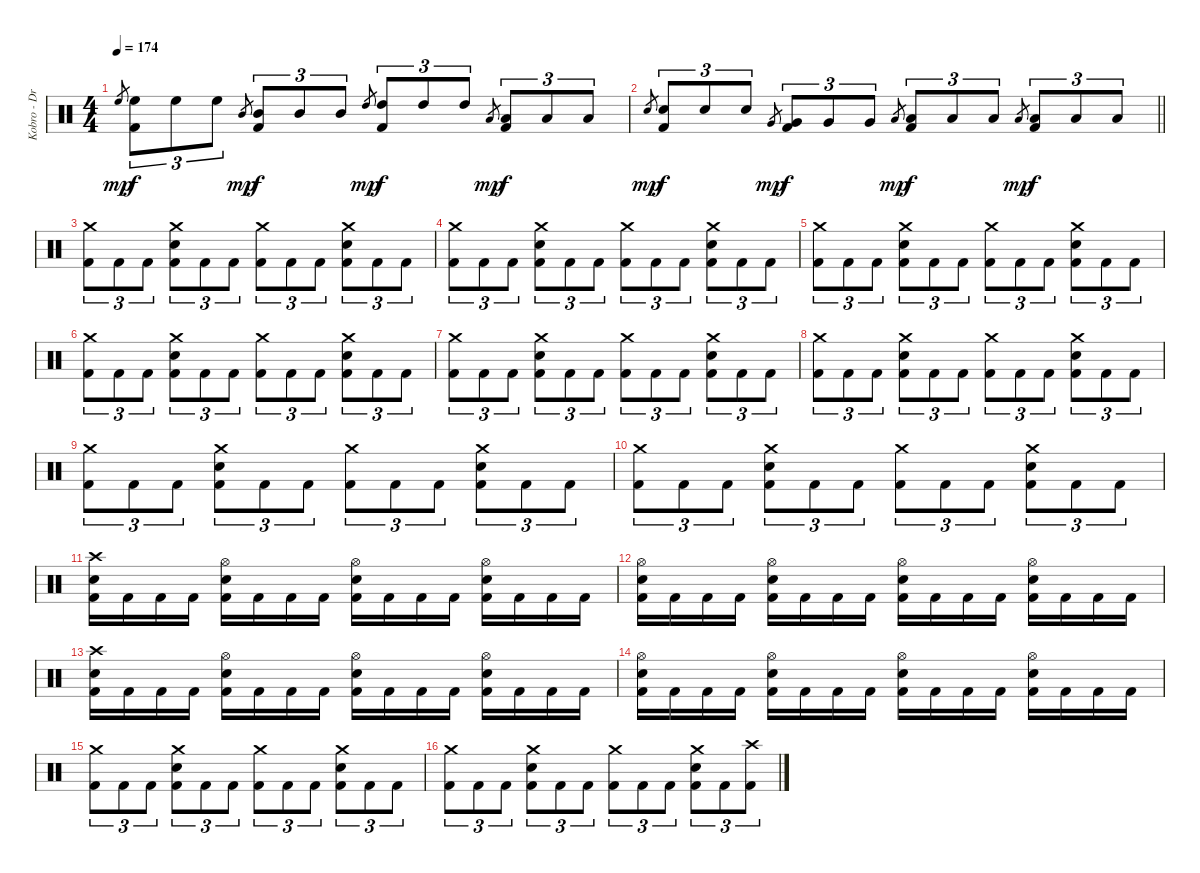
\track ("Kobro - Drums + Percussion" "Kobro - Dr") {instrument percussion}
\staff {score}
\articulation defaults
\ts (4 4)
\tempo 174
\clef neutral
\ks c "High Floor Tom (hit)".8{gr dy mp}
("High Floor Tom (hit)" "Kick (hit) 2").8{tu (3 2) dy f} "High Floor Tom (hit)".8{tu (3 2)} "High Floor Tom (hit)".8{tu (3 2)} "Mid Tom (hit)".8{gr dy mp} ("Mid Tom (hit)" "Kick (hit) 2").8{tu (3 2) dy f} "Mid Tom (hit)".8{tu (3 2)} "Mid Tom (hit)".8{tu (3 2)} "High Tom (hit)".8{gr dy mp} ("High Tom (hit)" "Kick (hit) 2").8{tu (3 2) dy f} "High Tom (hit)".8{tu (3 2)} "High Tom (hit)".8{tu (3 2)} "Low Tom (hit)".8{gr dy mp} ("Low Tom (hit)" "Kick (hit) 2").8{tu (3 2) dy f} "Low Tom (hit)".8{tu (3 2)} "Low Tom (hit)".8{tu (3 2)} |
\barLineRight lightlight "Electric Snare (hit)".8{gr dy mp}
("Electric Snare (hit)" "Kick (hit) 2").8{tu (3 2) dy f} "Electric Snare (hit)".8{tu (3 2)} "Electric Snare (hit)".8{tu (3 2)} "Very Low Tom (hit)".8{gr dy mp} ("Very Low Tom (hit)" "Kick (hit) 2").8{tu (3 2) dy f} "Very Low Tom (hit)".8{tu (3 2)} "Very Low Tom (hit)".8{tu (3 2)} "Low Tom (hit)".8{gr dy mp} ("Low Tom (hit)" "Kick (hit) 2").8{tu (3 2) dy f} "Low Tom (hit)".8{tu (3 2)} "Low Tom (hit)".8{tu (3 2)} "Low Floor Tom (hit)".8{gr dy mp} ("Low Floor Tom (hit)" "Kick (hit) 2").8{tu (3 2) dy f} "Low Floor Tom (hit)".8{tu (3 2)} "Low Floor Tom (hit)".8{tu (3 2)} |
("Crash medium (hit)" "Kick (hit) 2").8{tu (3 2)} "Kick (hit) 2".8{tu (3 2)} "Kick (hit) 2".8{tu (3 2)} ("Crash medium (hit)" "Electric Snare (hit)" "Kick (hit) 2").8{tu (3 2)} "Kick (hit) 2".8{tu (3 2)} "Kick (hit) 2".8{tu (3 2)} ("Crash medium (hit)" "Kick (hit) 2").8{tu (3 2)} "Kick (hit) 2".8{tu (3 2)} "Kick (hit) 2".8{tu (3 2)} ("Crash medium (hit)" "Electric Snare (hit)" "Kick (hit) 2").8{tu (3 2)} "Kick (hit) 2".8{tu (3 2)} "Kick (hit) 2".8{tu (3 2)} |
("Crash medium (hit)" "Kick (hit) 2").8{tu (3 2)} "Kick (hit) 2".8{tu (3 2)} "Kick (hit) 2".8{tu (3 2)} ("Crash medium (hit)" "Electric Snare (hit)" "Kick (hit) 2").8{tu (3 2)} "Kick (hit) 2".8{tu (3 2)} "Kick (hit) 2".8{tu (3 2)} ("Crash medium (hit)" "Kick (hit) 2").8{tu (3 2)} "Kick (hit) 2".8{tu (3 2)} "Kick (hit) 2".8{tu (3 2)} ("Crash medium (hit)" "Electric Snare (hit)" "Kick (hit) 2").8{tu (3 2)} "Kick (hit) 2".8{tu (3 2)} "Kick (hit) 2".8{tu (3 2)} |
("Crash medium (hit)" "Kick (hit) 2").8{tu (3 2)} "Kick (hit) 2".8{tu (3 2)} "Kick (hit) 2".8{tu (3 2)} ("Crash medium (hit)" "Electric Snare (hit)" "Kick (hit) 2").8{tu (3 2)} "Kick (hit) 2".8{tu (3 2)} "Kick (hit) 2".8{tu (3 2)} ("Crash medium (hit)" "Kick (hit) 2").8{tu (3 2)} "Kick (hit) 2".8{tu (3 2)} "Kick (hit) 2".8{tu (3 2)} ("Crash medium (hit)" "Electric Snare (hit)" "Kick (hit) 2").8{tu (3 2)} "Kick (hit) 2".8{tu (3 2)} "Kick (hit) 2".8{tu (3 2)} |
("Crash medium (hit)" "Kick (hit) 2").8{tu (3 2)} "Kick (hit) 2".8{tu (3 2)} "Kick (hit) 2".8{tu (3 2)} ("Crash medium (hit)" "Electric Snare (hit)" "Kick (hit) 2").8{tu (3 2)} "Kick (hit) 2".8{tu (3 2)} "Kick (hit) 2".8{tu (3 2)} ("Crash medium (hit)" "Kick (hit) 2").8{tu (3 2)} "Kick (hit) 2".8{tu (3 2)} "Kick (hit) 2".8{tu (3 2)} ("Crash medium (hit)" "Electric Snare (hit)" "Kick (hit) 2").8{tu (3 2)} "Kick (hit) 2".8{tu (3 2)} "Kick (hit) 2".8{tu (3 2)} |
("Crash medium (hit)" "Kick (hit) 2").8{tu (3 2)} "Kick (hit) 2".8{tu (3 2)} "Kick (hit) 2".8{tu (3 2)} ("Crash medium (hit)" "Electric Snare (hit)" "Kick (hit) 2").8{tu (3 2)} "Kick (hit) 2".8{tu (3 2)} "Kick (hit) 2".8{tu (3 2)} ("Crash medium (hit)" "Kick (hit) 2").8{tu (3 2)} "Kick (hit) 2".8{tu (3 2)} "Kick (hit) 2".8{tu (3 2)} ("Crash medium (hit)" "Electric Snare (hit)" "Kick (hit) 2").8{tu (3 2)} "Kick (hit) 2".8{tu (3 2)} "Kick (hit) 2".8{tu (3 2)} |
("Crash medium (hit)" "Kick (hit) 2").8{tu (3 2)} "Kick (hit) 2".8{tu (3 2)} "Kick (hit) 2".8{tu (3 2)} ("Crash medium (hit)" "Electric Snare (hit)" "Kick (hit) 2").8{tu (3 2)} "Kick (hit) 2".8{tu (3 2)} "Kick (hit) 2".8{tu (3 2)} ("Crash medium (hit)" "Kick (hit) 2").8{tu (3 2)} "Kick (hit) 2".8{tu (3 2)} "Kick (hit) 2".8{tu (3 2)} ("Crash medium (hit)" "Electric Snare (hit)" "Kick (hit) 2").8{tu (3 2)} "Kick (hit) 2".8{tu (3 2)} "Kick (hit) 2".8{tu (3 2)} |
("Crash medium (hit)" "Kick (hit) 2").8{tu (3 2)} "Kick (hit) 2".8{tu (3 2)} "Kick (hit) 2".8{tu (3 2)} ("Crash medium (hit)" "Electric Snare (hit)" "Kick (hit) 2").8{tu (3 2)} "Kick (hit) 2".8{tu (3 2)} "Kick (hit) 2".8{tu (3 2)} ("Crash medium (hit)" "Kick (hit) 2").8{tu (3 2)} "Kick (hit) 2".8{tu (3 2)} "Kick (hit) 2".8{tu (3 2)} ("Crash medium (hit)" "Electric Snare (hit)" "Kick (hit) 2").8{tu (3 2)} "Kick (hit) 2".8{tu (3 2)} "Kick (hit) 2".8{tu (3 2)} |
("Crash medium (hit)" "Kick (hit) 2").8{tu (3 2)} "Kick (hit) 2".8{tu (3 2)} "Kick (hit) 2".8{tu (3 2)} ("Crash medium (hit)" "Electric Snare (hit)" "Kick (hit) 2").8{tu (3 2)} "Kick (hit) 2".8{tu (3 2)} "Kick (hit) 2".8{tu (3 2)} ("Crash medium (hit)" "Kick (hit) 2").8{tu (3 2)} "Kick (hit) 2".8{tu (3 2)} "Kick (hit) 2".8{tu (3 2)} ("Crash medium (hit)" "Electric Snare (hit)" "Kick (hit) 2").8{tu (3 2)} "Kick (hit) 2".8{tu (3 2)} "Kick (hit) 2".8{tu (3 2)} |
("Crash high (hit)" "Electric Snare (hit)" "Kick (hit) 2").16 "Kick (hit) 2".16 "Kick (hit) 2".16 "Kick (hit) 2".16 ("Hi-Hat (open)" "Electric Snare (hit)" "Kick (hit) 2").16 "Kick (hit) 2".16 "Kick (hit) 2".16 "Kick (hit) 2".16 ("Hi-Hat (open)" "Electric Snare (hit)" "Kick (hit) 2").16 "Kick (hit) 2".16 "Kick (hit) 2".16 "Kick (hit) 2".16 ("Hi-Hat (open)" "Electric Snare (hit)" "Kick (hit) 2").16 "Kick (hit) 2".16 "Kick (hit) 2".16 "Kick (hit) 2".16 |
("Hi-Hat (open)" "Electric Snare (hit)" "Kick (hit) 2").16 "Kick (hit) 2".16 "Kick (hit) 2".16 "Kick (hit) 2".16 ("Hi-Hat (open)" "Electric Snare (hit)" "Kick (hit) 2").16 "Kick (hit) 2".16 "Kick (hit) 2".16 "Kick (hit) 2".16 ("Hi-Hat (open)" "Electric Snare (hit)" "Kick (hit) 2").16 "Kick (hit) 2".16 "Kick (hit) 2".16 "Kick (hit) 2".16 ("Hi-Hat (open)" "Electric Snare (hit)" "Kick (hit) 2").16 "Kick (hit) 2".16 "Kick (hit) 2".16 "Kick (hit) 2".16 |
("Crash high (hit)" "Electric Snare (hit)" "Kick (hit) 2").16 "Kick (hit) 2".16 "Kick (hit) 2".16 "Kick (hit) 2".16 ("Hi-Hat (open)" "Electric Snare (hit)" "Kick (hit) 2").16 "Kick (hit) 2".16 "Kick (hit) 2".16 "Kick (hit) 2".16 ("Hi-Hat (open)" "Electric Snare (hit)" "Kick (hit) 2").16 "Kick (hit) 2".16 "Kick (hit) 2".16 "Kick (hit) 2".16 ("Hi-Hat (open)" "Electric Snare (hit)" "Kick (hit) 2").16 "Kick (hit) 2".16 "Kick (hit) 2".16 "Kick (hit) 2".16 |
("Hi-Hat (open)" "Electric Snare (hit)" "Kick (hit) 2").16 "Kick (hit) 2".16 "Kick (hit) 2".16 "Kick (hit) 2".16 ("Hi-Hat (open)" "Electric Snare (hit)" "Kick (hit) 2").16 "Kick (hit) 2".16 "Kick (hit) 2".16 "Kick (hit) 2".16 ("Hi-Hat (open)" "Electric Snare (hit)" "Kick (hit) 2").16 "Kick (hit) 2".16 "Kick (hit) 2".16 "Kick (hit) 2".16 ("Hi-Hat (open)" "Electric Snare (hit)" "Kick (hit) 2").16 "Kick (hit) 2".16 "Kick (hit) 2".16 "Kick (hit) 2".16 |
("Crash medium (hit)" "Kick (hit) 2").8{tu (3 2)} "Kick (hit) 2".8{tu (3 2)} "Kick (hit) 2".8{tu (3 2)} ("Crash medium (hit)" "Electric Snare (hit)" "Kick (hit) 2").8{tu (3 2)} "Kick (hit) 2".8{tu (3 2)} "Kick (hit) 2".8{tu (3 2)} ("Crash medium (hit)" "Kick (hit) 2").8{tu (3 2)} "Kick (hit) 2".8{tu (3 2)} "Kick (hit) 2".8{tu (3 2)} ("Crash medium (hit)" "Electric Snare (hit)" "Kick (hit) 2").8{tu (3 2)} "Kick (hit) 2".8{tu (3 2)} "Kick (hit) 2".8{tu (3 2)} |
("Crash medium (hit)" "Kick (hit) 2").8{tu (3 2)} "Kick (hit) 2".8{tu (3 2)} "Kick (hit) 2".8{tu (3 2)} ("Crash medium (hit)" "Electric Snare (hit)" "Kick (hit) 2").8{tu (3 2)} "Kick (hit) 2".8{tu (3 2)} "Kick (hit) 2".8{tu (3 2)} ("Crash medium (hit)" "Kick (hit) 2").8{tu (3 2)} "Kick (hit) 2".8{tu (3 2)} "Kick (hit) 2".8{tu (3 2)} ("Crash medium (hit)" "Electric Snare (hit)" "Kick (hit) 2").8{tu (3 2)} "Kick (hit) 2".8{tu (3 2)} ("Crash high (hit)" "Kick (hit) 2").8{tu (3 2)}
